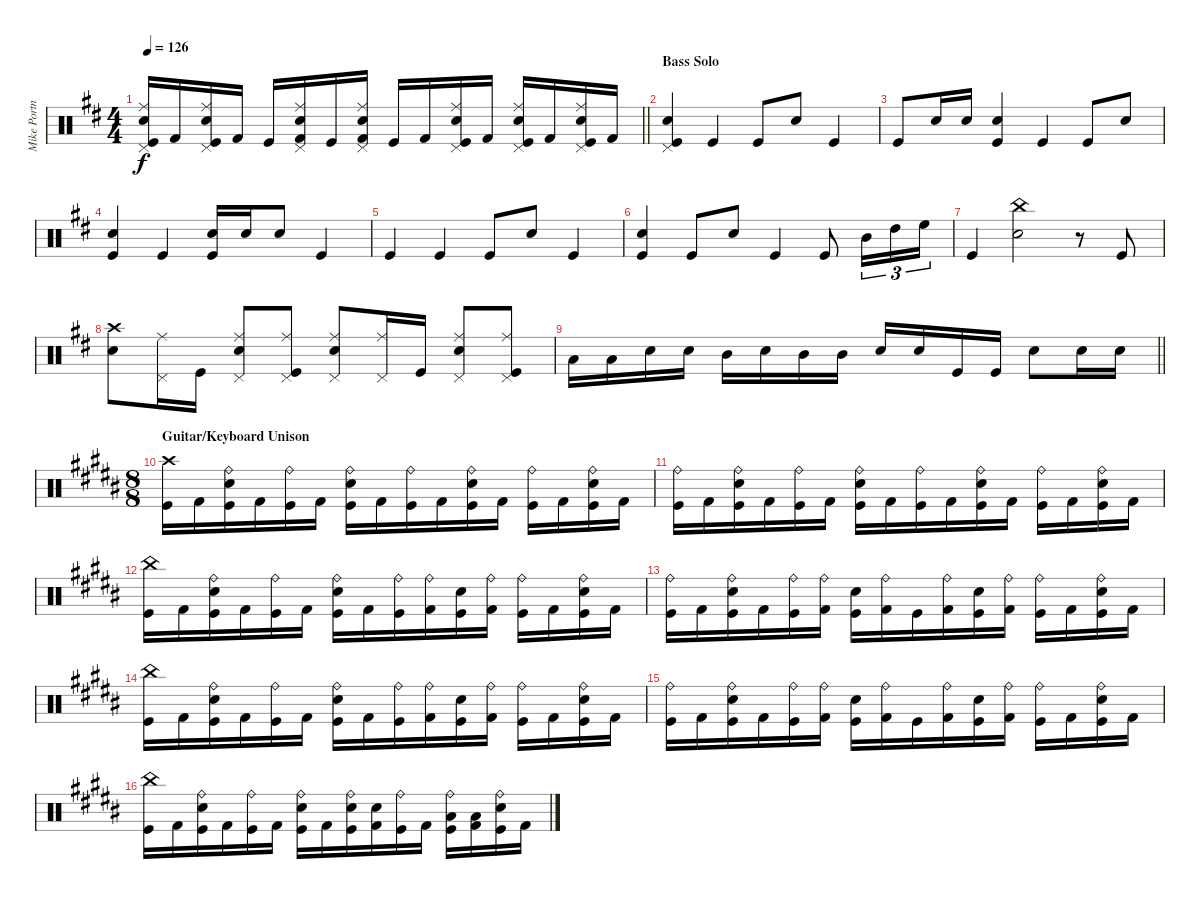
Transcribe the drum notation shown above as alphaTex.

\track ("Mike Portnoy" "Mike Portn") {instrument percussion}
\staff {score}
\articulation defaults
\ts (4 4)
\tempo 126
\clef neutral
\barLineRight lightlight
\ks bminor
("Snare (hit) 2" "Pedal Hi-Hat (hit)" "Ride (middle)" "Kick (hit)").16{dy f} "Kick (hit) 2".16 ("Snare (hit) 2" "Pedal Hi-Hat (hit)" "Ride (middle)" "Kick (hit)").16 "Kick (hit) 2".16 "Kick (hit)".16 ("Snare (hit) 2" "Pedal Hi-Hat (hit)" "Ride (middle)" "Kick (hit) 2").16 "Kick (hit)".16 ("Snare (hit) 2" "Pedal Hi-Hat (hit)" "Ride (middle)" "Kick (hit) 2").16 "Kick (hit)".16 "Kick (hit) 2".16 ("Snare (hit) 2" "Pedal Hi-Hat (hit)" "Ride (middle)" "Kick (hit)").16 "Kick (hit) 2".16 ("Snare (hit) 2" "Pedal Hi-Hat (hit)" "Ride (middle)" "Kick (hit)").16 "Kick (hit) 2".16 ("Snare (hit) 2" "Pedal Hi-Hat (hit)" "Ride (middle)" "Kick (hit)").16 "Kick (hit) 2".16 |
\section ("" "Bass Solo")
("Snare (hit) 2" "Kick (hit)" "Pedal Hi-Hat (hit)").4 "Kick (hit)".4 "Kick (hit)".8 "Snare (hit) 2".8 "Kick (hit)".4 |
"Kick (hit)".8 "Snare (hit) 2".16 "Snare (hit) 2".16 ("Snare (hit) 2" "Kick (hit)").4 "Kick (hit)".4 "Kick (hit)".8 "Snare (hit) 2".8 |
("Snare (hit) 2" "Kick (hit)").4 "Kick (hit)".4 ("Snare (hit) 2" "Kick (hit)").16 "Snare (hit) 2".16 "Snare (hit) 2".8 "Kick (hit)".4 |
"Kick (hit)".4 "Kick (hit)".4 "Kick (hit)".8 "Snare (hit) 2".8 "Kick (hit)".4 |
("Snare (hit) 2" "Kick (hit)").4 "Kick (hit)".8 "Snare (hit) 2".8 "Kick (hit)".4 "Kick (hit)".8 "Mid Tom (hit)".16{tu (3 2)} "High Tom (hit)".16{tu (3 2)} "High Floor Tom (hit)".16{tu (3 2)} |
"Kick (hit)".4 ("Snare (hit) 2" "China (hit)").2 r.8 "Kick (hit)".8 |
("Snare (hit) 2" "Crash high (hit)").8 ("Pedal Hi-Hat (hit)" "Ride (middle)").16 "Kick (hit)".16 ("Pedal Hi-Hat (hit)" "Ride (middle)" "Snare (hit) 2").8 ("Pedal Hi-Hat (hit)" "Ride (middle)" "Kick (hit)").8 ("Pedal Hi-Hat (hit)" "Ride (middle)" "Snare (hit) 2").8 ("Pedal Hi-Hat (hit)" "Ride (middle)").16 "Kick (hit)".16 ("Pedal Hi-Hat (hit)" "Ride (middle)" "Snare (hit) 2").8 ("Pedal Hi-Hat (hit)" "Ride (middle)" "Kick (hit)").8 |
\barLineRight lightlight "Low Tom (hit)".16 "Low Tom (hit)".16 "Electric Snare (hit)".16 "Electric Snare (hit)".16 "Mid Tom (hit)".16 "Electric Snare (hit)".16 "Mid Tom (hit)".16 "Mid Tom (hit)".16 "Electric Snare (hit)".16 "Electric Snare (hit)".16 "Kick (hit)".16 "Kick (hit)".16 "Electric Snare (hit)".8 "Snare (hit) 2".16 "Snare (hit) 2".16
|
\ts (8 8)
\section ("" "Guitar/Keyboard Unison")
\ks g#minor
("Crash high (hit)" "Kick (hit)").16 "Kick (hit) 2".16 ("Ride (bell)" "Electric Snare (hit)" "Kick (hit)").16 "Kick (hit) 2".16 ("Ride (bell)" "Kick (hit)").16 "Kick (hit) 2".16 ("Ride (bell)" "Electric Snare (hit)" "Kick (hit)").16 "Kick (hit) 2".16 ("Ride (bell)" "Kick (hit)").16 "Kick (hit) 2".16 ("Ride (bell)" "Electric Snare (hit)" "Kick (hit)").16 "Kick (hit) 2".16 ("Ride (bell)" "Kick (hit)").16 "Kick (hit) 2".16 ("Ride (bell)" "Electric Snare (hit)" "Kick (hit)").16 "Kick (hit) 2".16 |
("Ride (bell)" "Kick (hit)").16 "Kick (hit) 2".16 ("Ride (bell)" "Electric Snare (hit)" "Kick (hit)").16 "Kick (hit) 2".16 ("Ride (bell)" "Kick (hit)").16 "Kick (hit) 2".16 ("Ride (bell)" "Electric Snare (hit)" "Kick (hit)").16 "Kick (hit) 2".16 ("Ride (bell)" "Kick (hit)").16 "Kick (hit) 2".16 ("Ride (bell)" "Electric Snare (hit)" "Kick (hit)").16 "Kick (hit) 2".16 ("Ride (bell)" "Kick (hit)").16 "Kick (hit) 2".16 ("Ride (bell)" "Electric Snare (hit)" "Kick (hit)").16 "Kick (hit) 2".16 |
("China (hit)" "Kick (hit)").16 "Kick (hit) 2".16 ("Ride (bell)" "Electric Snare (hit)" "Kick (hit)").16 "Kick (hit) 2".16 ("Ride (bell)" "Kick (hit)").16 "Kick (hit) 2".16 ("Ride (bell)" "Electric Snare (hit)" "Kick (hit)").16 "Kick (hit) 2".16 ("Ride (bell)" "Kick (hit)").16 ("Ride (bell)" "Kick (hit) 2").16 ("Electric Snare (hit)" "Kick (hit)").16 ("Ride (bell)" "Kick (hit) 2").16 ("Ride (bell)" "Kick (hit)").16 "Kick (hit) 2".16 ("Ride (bell)" "Electric Snare (hit)" "Kick (hit)").16 "Kick (hit) 2".16 |
("Ride (bell)" "Kick (hit)").16 "Kick (hit) 2".16 ("Ride (bell)" "Electric Snare (hit)" "Kick (hit)").16 "Kick (hit) 2".16 ("Ride (bell)" "Kick (hit)").16 ("Ride (bell)" "Kick (hit) 2").16 ("Electric Snare (hit)" "Kick (hit)").16 ("Ride (bell)" "Kick (hit) 2").16 "Kick (hit)".16 ("Ride (bell)" "Kick (hit) 2").16 ("Electric Snare (hit)" "Kick (hit)").16 ("Ride (bell)" "Kick (hit) 2").16 ("Ride (bell)" "Kick (hit)").16 "Kick (hit) 2".16 ("Ride (bell)" "Electric Snare (hit)" "Kick (hit)").16 "Kick (hit) 2".16 |
("China (hit)" "Kick (hit)").16 "Kick (hit) 2".16 ("Ride (bell)" "Electric Snare (hit)" "Kick (hit)").16 "Kick (hit) 2".16 ("Ride (bell)" "Kick (hit)").16 "Kick (hit) 2".16 ("Ride (bell)" "Electric Snare (hit)" "Kick (hit)").16 "Kick (hit) 2".16 ("Ride (bell)" "Kick (hit)").16 ("Ride (bell)" "Kick (hit) 2").16 ("Electric Snare (hit)" "Kick (hit)").16 ("Ride (bell)" "Kick (hit) 2").16 ("Ride (bell)" "Kick (hit)").16 "Kick (hit) 2".16 ("Ride (bell)" "Electric Snare (hit)" "Kick (hit)").16 "Kick (hit) 2".16 |
("Ride (bell)" "Kick (hit)").16 "Kick (hit) 2".16 ("Ride (bell)" "Electric Snare (hit)" "Kick (hit)").16 "Kick (hit) 2".16 ("Ride (bell)" "Kick (hit)").16 ("Ride (bell)" "Kick (hit) 2").16 ("Electric Snare (hit)" "Kick (hit)").16 ("Ride (bell)" "Kick (hit) 2").16 "Kick (hit)".16 ("Ride (bell)" "Kick (hit) 2").16 ("Electric Snare (hit)" "Kick (hit)").16 ("Ride (bell)" "Kick (hit) 2").16 ("Ride (bell)" "Kick (hit)").16 "Kick (hit) 2".16 ("Ride (bell)" "Electric Snare (hit)" "Kick (hit)").16 "Kick (hit) 2".16 |
("China (hit)" "Kick (hit)").16 "Kick (hit) 2".16 ("Ride (bell)" "Electric Snare (hit)" "Kick (hit)").16 "Kick (hit) 2".16 ("Ride (bell)" "Kick (hit)").16 "Kick (hit) 2".16 ("Ride (bell)" "Electric Snare (hit)" "Kick (hit)").16 "Kick (hit) 2".16 ("Ride (bell)" "Electric Snare (hit)" "Kick (hit)").16 ("Electric Snare (hit)" "Kick (hit) 2").16 ("Ride (bell)" "Kick (hit)").16 "Kick (hit) 2".16 ("Ride (bell)" "Low Tom (hit)" "Kick (hit)").16 ("Low Tom (hit)" "Kick (hit) 2").16 ("Ride (bell)" "Electric Snare (hit)" "Kick (hit)").16 "Kick (hit) 2".16
